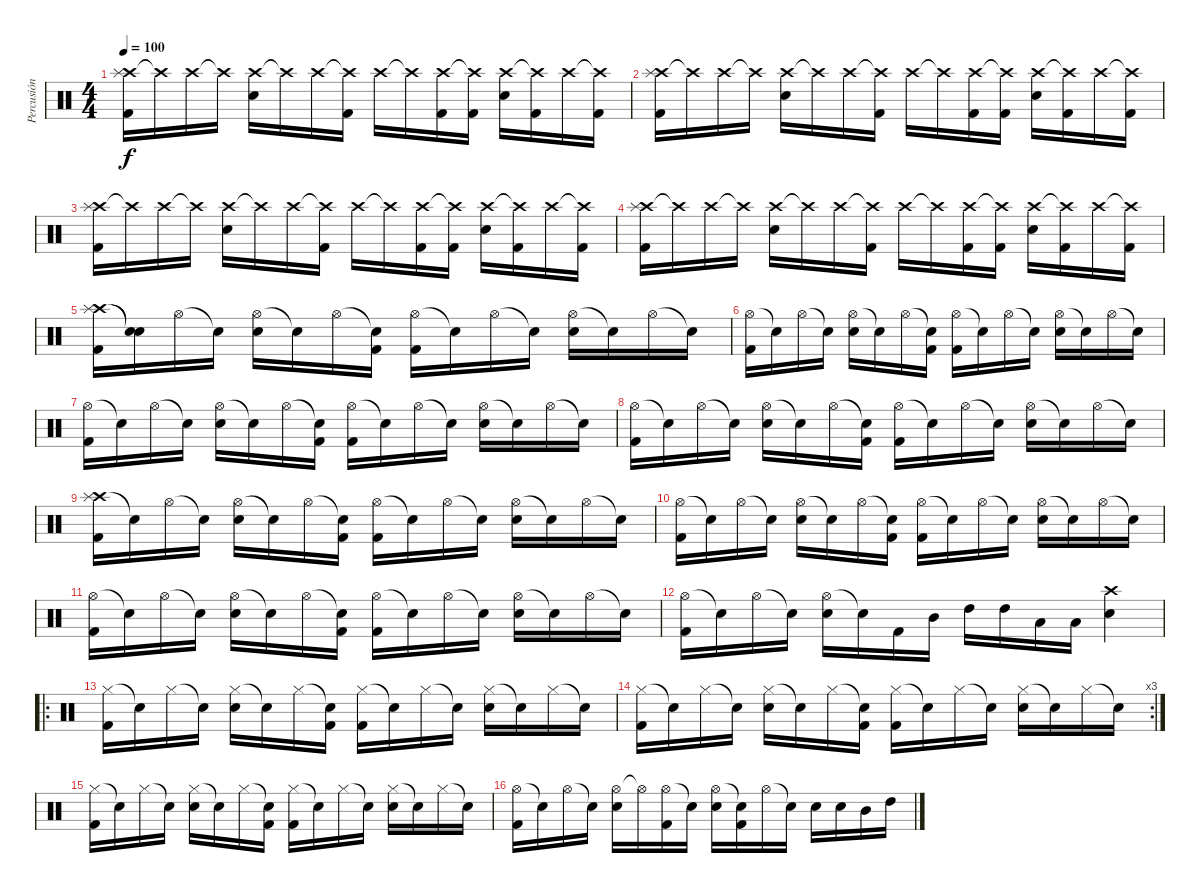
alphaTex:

\track ("Percusión" "Percusión") {instrument percussion}
\staff {score}
\articulation defaults
\ts (4 4)
\tempo 100
\clef neutral
\ks c
("Crash high (hit)" "Splash (hit)" "Kick (hit) 2").16{dy f} "Crash high (hit)"{t}.16 "Crash high (hit)".16 "Crash high (hit)"{t}.16 ("Crash high (hit)" "Electric Snare (hit)").16 "Crash high (hit)"{t}.16 "Crash high (hit)".16 ("Crash high (hit)"{t} "Kick (hit) 2").16 "Crash high (hit)".16 "Crash high (hit)"{t}.16 ("Crash high (hit)" "Kick (hit) 2").16 ("Crash high (hit)"{t} "Kick (hit) 2").16 ("Crash high (hit)" "Electric Snare (hit)").16 ("Crash high (hit)"{t} "Kick (hit) 2").16 "Crash high (hit)".16 ("Crash high (hit)"{t} "Kick (hit) 2").16 |
("Crash high (hit)" "Splash (hit)" "Kick (hit) 2").16 "Crash high (hit)"{t}.16 "Crash high (hit)".16 "Crash high (hit)"{t}.16 ("Crash high (hit)" "Electric Snare (hit)").16 "Crash high (hit)"{t}.16 "Crash high (hit)".16 ("Crash high (hit)"{t} "Kick (hit) 2").16 "Crash high (hit)".16 "Crash high (hit)"{t}.16 ("Crash high (hit)" "Kick (hit) 2").16 ("Crash high (hit)"{t} "Kick (hit) 2").16 ("Crash high (hit)" "Electric Snare (hit)").16 ("Crash high (hit)"{t} "Kick (hit) 2").16 "Crash high (hit)".16 ("Crash high (hit)"{t} "Kick (hit) 2").16 |
("Crash high (hit)" "Splash (hit)" "Kick (hit) 2").16 "Crash high (hit)"{t}.16 "Crash high (hit)".16 "Crash high (hit)"{t}.16 ("Crash high (hit)" "Electric Snare (hit)").16 "Crash high (hit)"{t}.16 "Crash high (hit)".16 ("Crash high (hit)"{t} "Kick (hit) 2").16 "Crash high (hit)".16 "Crash high (hit)"{t}.16 ("Crash high (hit)" "Kick (hit) 2").16 ("Crash high (hit)"{t} "Kick (hit) 2").16 ("Crash high (hit)" "Electric Snare (hit)").16 ("Crash high (hit)"{t} "Kick (hit) 2").16 "Crash high (hit)".16 ("Crash high (hit)"{t} "Kick (hit) 2").16 |
("Crash high (hit)" "Splash (hit)" "Kick (hit) 2").16 "Crash high (hit)"{t}.16 "Crash high (hit)".16 "Crash high (hit)"{t}.16 ("Crash high (hit)" "Electric Snare (hit)").16 "Crash high (hit)"{t}.16 "Crash high (hit)".16 ("Crash high (hit)"{t} "Kick (hit) 2").16 "Crash high (hit)".16 "Crash high (hit)"{t}.16 ("Crash high (hit)" "Kick (hit) 2").16 ("Crash high (hit)"{t} "Kick (hit) 2").16 ("Crash high (hit)" "Electric Snare (hit)").16 ("Crash high (hit)"{t} "Kick (hit) 2").16 "Crash high (hit)".16 ("Crash high (hit)"{t} "Kick (hit) 2").16 |
("Crash high (hit)" "Splash (hit)" "Kick (hit) 2").16 ("Snare (hit)"{t} "Snare (hit)"{t}).16 "Hi-Hat (open)".16 "Snare (hit)"{t}.16 ("Hi-Hat (open)" "Electric Snare (hit)").16 "Snare (hit)"{t}.16 "Hi-Hat (open)".16 ("Snare (hit)"{t} "Kick (hit) 2").16 ("Hi-Hat (open)" "Kick (hit) 2").16 "Snare (hit)"{t}.16 "Hi-Hat (open)".16 "Snare (hit)"{t}.16 ("Hi-Hat (open)" "Electric Snare (hit)").16 "Snare (hit)"{t}.16 "Hi-Hat (open)".16 "Snare (hit)"{t}.16 |
("Hi-Hat (open)" "Kick (hit) 2").16 "Snare (hit)"{t}.16 "Hi-Hat (open)".16 "Snare (hit)"{t}.16 ("Hi-Hat (open)" "Electric Snare (hit)").16 "Snare (hit)"{t}.16 "Hi-Hat (open)".16 ("Snare (hit)"{t} "Kick (hit) 2").16 ("Hi-Hat (open)" "Kick (hit) 2").16 "Snare (hit)"{t}.16 "Hi-Hat (open)".16 "Snare (hit)"{t}.16 ("Hi-Hat (open)" "Electric Snare (hit)").16 "Snare (hit)"{t}.16 "Hi-Hat (open)".16 "Snare (hit)"{t}.16 |
("Hi-Hat (open)" "Kick (hit) 2").16 "Snare (hit)"{t}.16 "Hi-Hat (open)".16 "Snare (hit)"{t}.16 ("Hi-Hat (open)" "Electric Snare (hit)").16 "Snare (hit)"{t}.16 "Hi-Hat (open)".16 ("Snare (hit)"{t} "Kick (hit) 2").16 ("Hi-Hat (open)" "Kick (hit) 2").16 "Snare (hit)"{t}.16 "Hi-Hat (open)".16 "Snare (hit)"{t}.16 ("Hi-Hat (open)" "Electric Snare (hit)").16 "Snare (hit)"{t}.16 "Hi-Hat (open)".16 "Snare (hit)"{t}.16 |
("Hi-Hat (open)" "Kick (hit) 2").16 "Snare (hit)"{t}.16 "Hi-Hat (open)".16 "Snare (hit)"{t}.16 ("Hi-Hat (open)" "Electric Snare (hit)").16 "Snare (hit)"{t}.16 "Hi-Hat (open)".16 ("Snare (hit)"{t} "Kick (hit) 2").16 ("Hi-Hat (open)" "Kick (hit) 2").16 "Snare (hit)"{t}.16 "Hi-Hat (open)".16 "Snare (hit)"{t}.16 ("Hi-Hat (open)" "Electric Snare (hit)").16 "Snare (hit)"{t}.16 "Hi-Hat (open)".16 "Snare (hit)"{t}.16 |
("Crash high (hit)" "Splash (hit)" "Kick (hit) 2").16 "Snare (hit)"{t}.16 "Hi-Hat (open)".16 "Snare (hit)"{t}.16 ("Hi-Hat (open)" "Electric Snare (hit)").16 "Snare (hit)"{t}.16 "Hi-Hat (open)".16 ("Snare (hit)"{t} "Kick (hit) 2").16 ("Hi-Hat (open)" "Kick (hit) 2").16 "Snare (hit)"{t}.16 "Hi-Hat (open)".16 "Snare (hit)"{t}.16 ("Hi-Hat (open)" "Electric Snare (hit)").16 "Snare (hit)"{t}.16 "Hi-Hat (open)".16 "Snare (hit)"{t}.16 |
("Hi-Hat (open)" "Kick (hit) 2").16 "Snare (hit)"{t}.16 "Hi-Hat (open)".16 "Snare (hit)"{t}.16 ("Hi-Hat (open)" "Electric Snare (hit)").16 "Snare (hit)"{t}.16 "Hi-Hat (open)".16 ("Snare (hit)"{t} "Kick (hit) 2").16 ("Hi-Hat (open)" "Kick (hit) 2").16 "Snare (hit)"{t}.16 "Hi-Hat (open)".16 "Snare (hit)"{t}.16 ("Hi-Hat (open)" "Electric Snare (hit)").16 "Snare (hit)"{t}.16 "Hi-Hat (open)".16 "Snare (hit)"{t}.16 |
("Hi-Hat (open)" "Kick (hit) 2").16 "Snare (hit)"{t}.16 "Hi-Hat (open)".16 "Snare (hit)"{t}.16 ("Hi-Hat (open)" "Electric Snare (hit)").16 "Snare (hit)"{t}.16 "Hi-Hat (open)".16 ("Snare (hit)"{t} "Kick (hit) 2").16 ("Hi-Hat (open)" "Kick (hit) 2").16 "Snare (hit)"{t}.16 "Hi-Hat (open)".16 "Snare (hit)"{t}.16 ("Hi-Hat (open)" "Electric Snare (hit)").16 "Snare (hit)"{t}.16 "Hi-Hat (open)".16 "Snare (hit)"{t}.16 |
("Hi-Hat (open)" "Kick (hit) 2").16 "Snare (hit)"{t}.16 "Hi-Hat (open)".16 "Snare (hit)"{t}.16 ("Hi-Hat (open)" "Electric Snare (hit)").16 "Snare (hit)"{t}.16 "Kick (hit) 2".16 "Mid Tom (hit)".16 "High Tom (hit)".16 "High Tom (hit)".16 "Low Floor Tom (hit)".16 "Low Floor Tom (hit)".16 ("Electric Snare (hit)" "Crash high (hit)").4 |
\ro
("Hi-Hat (closed)" "Kick (hit) 2").16 "Snare (hit)"{t}.16 "Hi-Hat (closed)".16 "Snare (hit)"{t}.16 ("Hi-Hat (closed)" "Electric Snare (hit)").16 "Snare (hit)"{t}.16 "Hi-Hat (closed)".16 ("Snare (hit)"{t} "Kick (hit) 2").16 ("Hi-Hat (closed)" "Kick (hit) 2").16 "Snare (hit)"{t}.16 "Hi-Hat (closed)".16 "Snare (hit)"{t}.16 ("Hi-Hat (closed)" "Electric Snare (hit)").16 "Snare (hit)"{t}.16 "Hi-Hat (closed)".16 "Snare (hit)"{t}.16 |
\rc 3
("Hi-Hat (closed)" "Kick (hit) 2").16 "Snare (hit)"{t}.16 "Hi-Hat (closed)".16 "Snare (hit)"{t}.16 ("Hi-Hat (closed)" "Electric Snare (hit)").16 "Snare (hit)"{t}.16 "Hi-Hat (closed)".16 ("Snare (hit)"{t} "Kick (hit) 2").16 ("Hi-Hat (closed)" "Kick (hit) 2").16 "Snare (hit)"{t}.16 "Hi-Hat (closed)".16 "Snare (hit)"{t}.16 ("Hi-Hat (closed)" "Electric Snare (hit)").16 "Snare (hit)"{t}.16 "Hi-Hat (closed)".16 "Snare (hit)"{t}.16 |
("Hi-Hat (closed)" "Kick (hit) 2").16 "Snare (hit)"{t}.16 "Hi-Hat (closed)".16 "Snare (hit)"{t}.16 ("Hi-Hat (closed)" "Electric Snare (hit)").16 "Snare (hit)"{t}.16 "Hi-Hat (closed)".16 ("Snare (hit)"{t} "Kick (hit) 2").16 ("Hi-Hat (closed)" "Kick (hit) 2").16 "Snare (hit)"{t}.16 "Hi-Hat (closed)".16 "Snare (hit)"{t}.16 ("Hi-Hat (closed)" "Electric Snare (hit)").16 "Snare (hit)"{t}.16 "Hi-Hat (closed)".16 "Snare (hit)"{t}.16 |
("Hi-Hat (open)" "Kick (hit) 2").16 "Snare (hit)"{t}.16 "Hi-Hat (open)".16 "Snare (hit)"{t}.16 ("Hi-Hat (open)" "Electric Snare (hit)").16 "Hi-Hat (open)"{t}.16 ("Hi-Hat (open)" "Kick (hit) 2").16 "Snare (hit)"{t}.16 ("Hi-Hat (open)" "Electric Snare (hit)").16 ("Snare (hit)"{t} "Kick (hit) 2").16 "Hi-Hat (open)".16 "Snare (hit)"{t}.16 "Electric Snare (hit)".16 "Electric Snare (hit)".16 "Mid Tom (hit)".16 "High Tom (hit)".16
